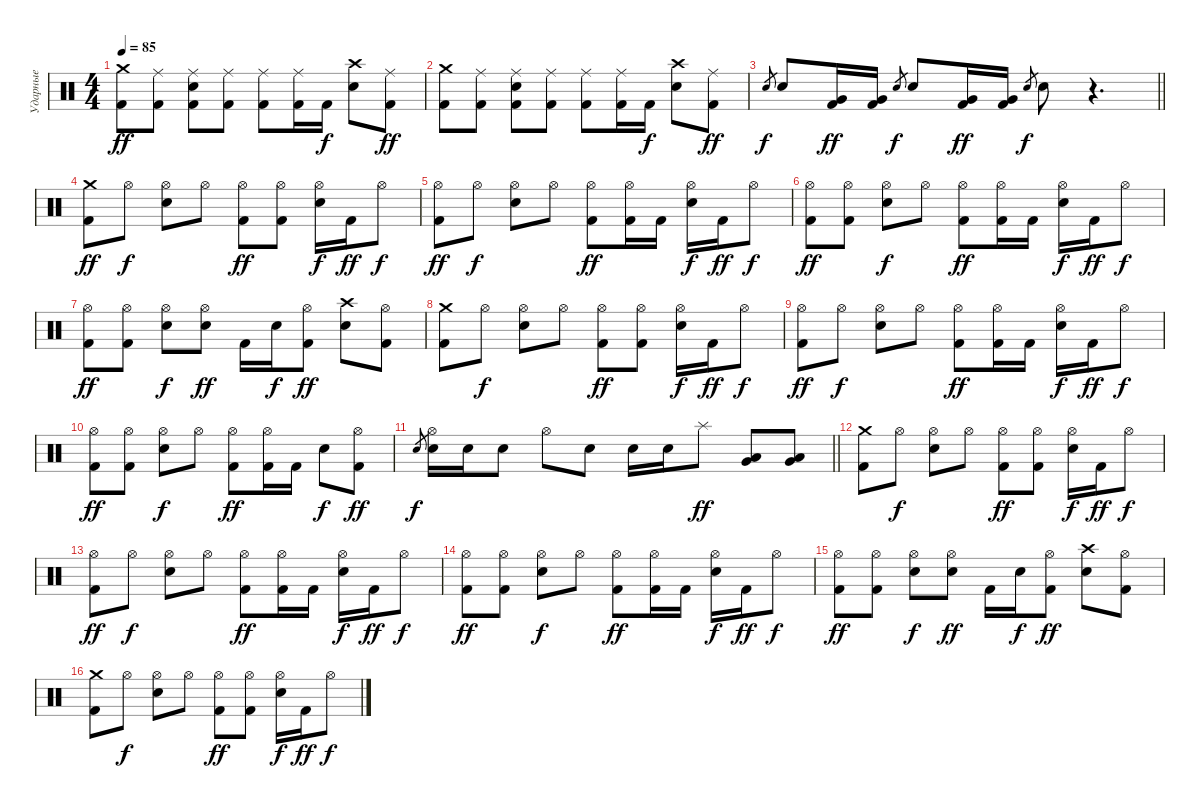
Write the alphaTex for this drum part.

\track ("Ударные" "Ударные") {instrument percussion}
\staff {score}
\articulation defaults
\ts (4 4)
\tempo 85
\clef neutral
\ks c
("Kick (hit) 2" "Crash medium (hit)").8{dy ff} ("Kick (hit) 2" "Ride (middle)").8 ("Kick (hit) 2" "Electric Snare (hit)" "Ride (middle)").8 ("Kick (hit) 2" "Ride (middle)").8 ("Kick (hit) 2" "Ride (middle)").8 ("Kick (hit) 2" "Ride (middle)").16 "Kick (hit) 2".16{dy f} ("Electric Snare (hit)" "Crash high (hit)").8 ("Kick (hit) 2" "Ride (middle)").8{dy ff} |
("Kick (hit) 2" "Crash medium (hit)").8 ("Kick (hit) 2" "Ride (middle)").8 ("Kick (hit) 2" "Electric Snare (hit)" "Ride (middle)").8 ("Kick (hit) 2" "Ride (middle)").8 ("Kick (hit) 2" "Ride (middle)").8 ("Kick (hit) 2" "Ride (middle)").16 "Kick (hit) 2".16{dy f} ("Electric Snare (hit)" "Crash high (hit)").8 ("Kick (hit) 2" "Ride (middle)").8{dy ff} |
\barLineRight lightlight "Electric Snare (hit)".8{gr dy f} "Electric Snare (hit)".8
("Kick (hit) 2" "Very Low Tom (hit)").16{dy ff} ("Kick (hit) 2" "Very Low Tom (hit)").16 "Electric Snare (hit)".8{gr dy f} "Electric Snare (hit)".8 ("Kick (hit) 2" "Very Low Tom (hit)").16{dy ff} ("Kick (hit) 2" "Very Low Tom (hit)").16 "Electric Snare (hit)".8{gr dy f} "Electric Snare (hit)".8 r.4{d} |
("Kick (hit) 2" "Crash medium (hit)").8{dy ff} "Hi-Hat (open)".8{dy f} ("Electric Snare (hit)" "Hi-Hat (open)").8 "Hi-Hat (open)".8 ("Kick (hit) 2" "Hi-Hat (open)").8{dy ff} ("Kick (hit) 2" "Hi-Hat (open)").8 ("Electric Snare (hit)" "Hi-Hat (open)").16{dy f} "Kick (hit) 2".16{dy ff} "Hi-Hat (open)".8{dy f} |
("Kick (hit) 2" "Hi-Hat (open)").8{dy ff} "Hi-Hat (open)".8{dy f} ("Electric Snare (hit)" "Hi-Hat (open)").8 "Hi-Hat (open)".8 ("Kick (hit) 2" "Hi-Hat (open)").8{dy ff} ("Kick (hit) 2" "Hi-Hat (open)").16 "Kick (hit) 2".16 ("Electric Snare (hit)" "Hi-Hat (open)").16{dy f} "Kick (hit) 2".16{dy ff} "Hi-Hat (open)".8{dy f} |
("Kick (hit) 2" "Hi-Hat (open)").8{dy ff} ("Kick (hit) 2" "Hi-Hat (open)").8 ("Electric Snare (hit)" "Hi-Hat (open)").8{dy f} "Hi-Hat (open)".8 ("Kick (hit) 2" "Hi-Hat (open)").8{dy ff} ("Kick (hit) 2" "Hi-Hat (open)").16 "Kick (hit) 2".16 ("Electric Snare (hit)" "Hi-Hat (open)").16{dy f} "Kick (hit) 2".16{dy ff} "Hi-Hat (open)".8{dy f} |
("Kick (hit) 2" "Hi-Hat (open)").8{dy ff} ("Kick (hit) 2" "Hi-Hat (open)").8 ("Electric Snare (hit)" "Hi-Hat (open)").8{dy f} ("Electric Snare (hit)" "Hi-Hat (open)").8{dy ff} "Kick (hit) 2".16 "Electric Snare (hit)".16{dy f} ("Kick (hit) 2" "Hi-Hat (open)").8{dy ff} ("Electric Snare (hit)" "Crash high (hit)").8 ("Kick (hit) 2" "Hi-Hat (open)").8 |
("Kick (hit) 2" "Crash medium (hit)").8 "Hi-Hat (open)".8{dy f} ("Electric Snare (hit)" "Hi-Hat (open)").8 "Hi-Hat (open)".8 ("Kick (hit) 2" "Hi-Hat (open)").8{dy ff} ("Kick (hit) 2" "Hi-Hat (open)").8 ("Electric Snare (hit)" "Hi-Hat (open)").16{dy f} "Kick (hit) 2".16{dy ff} "Hi-Hat (open)".8{dy f} |
("Kick (hit) 2" "Hi-Hat (open)").8{dy ff} "Hi-Hat (open)".8{dy f} ("Electric Snare (hit)" "Hi-Hat (open)").8 "Hi-Hat (open)".8 ("Kick (hit) 2" "Hi-Hat (open)").8{dy ff} ("Kick (hit) 2" "Hi-Hat (open)").16 "Kick (hit) 2".16 ("Electric Snare (hit)" "Hi-Hat (open)").16{dy f} "Kick (hit) 2".16{dy ff} "Hi-Hat (open)".8{dy f} |
("Kick (hit) 2" "Hi-Hat (open)").8{dy ff} ("Kick (hit) 2" "Hi-Hat (open)").8 ("Electric Snare (hit)" "Hi-Hat (open)").8{dy f} "Hi-Hat (open)".8 ("Kick (hit) 2" "Hi-Hat (open)").8{dy ff} ("Kick (hit) 2" "Hi-Hat (open)").16 "Kick (hit) 2".16 "Electric Snare (hit)".8{dy f} ("Kick (hit) 2" "Hi-Hat (open)").8{dy ff} |
\barLineRight lightlight "Electric Snare (hit)".8{gr dy f}
("Electric Snare (hit)" "Hi-Hat (open)").16 "Electric Snare (hit)".16 "Electric Snare (hit)".8 "Hi-Hat (open)".8 "Electric Snare (hit)".8 "Electric Snare (hit)".16 "Electric Snare (hit)".16 "Splash (hit)".8{dy ff} ("Very Low Tom (hit)" "Low Tom (hit)").8 ("Very Low Tom (hit)" "Low Tom (hit)").8 |
("Kick (hit) 2" "Crash medium (hit)").8 "Hi-Hat (open)".8{dy f} ("Electric Snare (hit)" "Hi-Hat (open)").8 "Hi-Hat (open)".8 ("Kick (hit) 2" "Hi-Hat (open)").8{dy ff} ("Kick (hit) 2" "Hi-Hat (open)").8 ("Electric Snare (hit)" "Hi-Hat (open)").16{dy f} "Kick (hit) 2".16{dy ff} "Hi-Hat (open)".8{dy f} |
("Kick (hit) 2" "Hi-Hat (open)").8{dy ff} "Hi-Hat (open)".8{dy f} ("Electric Snare (hit)" "Hi-Hat (open)").8 "Hi-Hat (open)".8 ("Kick (hit) 2" "Hi-Hat (open)").8{dy ff} ("Kick (hit) 2" "Hi-Hat (open)").16 "Kick (hit) 2".16 ("Electric Snare (hit)" "Hi-Hat (open)").16{dy f} "Kick (hit) 2".16{dy ff} "Hi-Hat (open)".8{dy f} |
("Kick (hit) 2" "Hi-Hat (open)").8{dy ff} ("Kick (hit) 2" "Hi-Hat (open)").8 ("Electric Snare (hit)" "Hi-Hat (open)").8{dy f} "Hi-Hat (open)".8 ("Kick (hit) 2" "Hi-Hat (open)").8{dy ff} ("Kick (hit) 2" "Hi-Hat (open)").16 "Kick (hit) 2".16 ("Electric Snare (hit)" "Hi-Hat (open)").16{dy f} "Kick (hit) 2".16{dy ff} "Hi-Hat (open)".8{dy f} |
("Kick (hit) 2" "Hi-Hat (open)").8{dy ff} ("Kick (hit) 2" "Hi-Hat (open)").8 ("Electric Snare (hit)" "Hi-Hat (open)").8{dy f} ("Electric Snare (hit)" "Hi-Hat (open)").8{dy ff} "Kick (hit) 2".16 "Electric Snare (hit)".16{dy f} ("Kick (hit) 2" "Hi-Hat (open)").8{dy ff} ("Electric Snare (hit)" "Crash high (hit)").8 ("Kick (hit) 2" "Hi-Hat (open)").8 |
("Kick (hit) 2" "Crash medium (hit)").8 "Hi-Hat (open)".8{dy f} ("Electric Snare (hit)" "Hi-Hat (open)").8 "Hi-Hat (open)".8 ("Kick (hit) 2" "Hi-Hat (open)").8{dy ff} ("Kick (hit) 2" "Hi-Hat (open)").8 ("Electric Snare (hit)" "Hi-Hat (open)").16{dy f} "Kick (hit) 2".16{dy ff} "Hi-Hat (open)".8{dy f}
